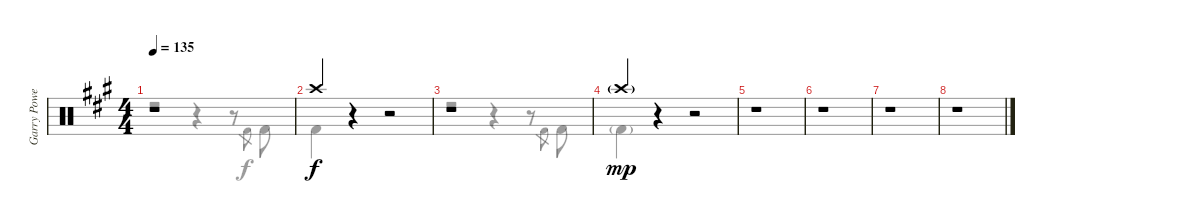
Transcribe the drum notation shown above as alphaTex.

\track ("Garry Powell" "Garry Powe") {instrument percussion}
\staff {score}
\articulation defaults
\voice
\ts (4 4)
\tempo 135
\clef neutral
\ks a
r.1{dy f} |
"Crash high (hit)".4 r.4 r.2 |
r.1 |
"Crash high (hit)"{g}.4{dy mp} r.4 r.2 |
r.1 |
r.1 |
r.1 |
r.1
\voice
\clef neutral
\ottava regular
\simile none
\ks a
r.2{dy f} r.4 r.8 "Kick (hit) 2".8{gr} "Kick (hit) 2".8 |
"Kick (hit) 2".4 r.4 r.2 |
r.2 r.4 r.8 "Kick (hit) 2".8{gr} "Kick (hit) 2".8 |
"Kick (hit) 2"{g}.4{dy mp} r.4 r.2 |
|
|
|
